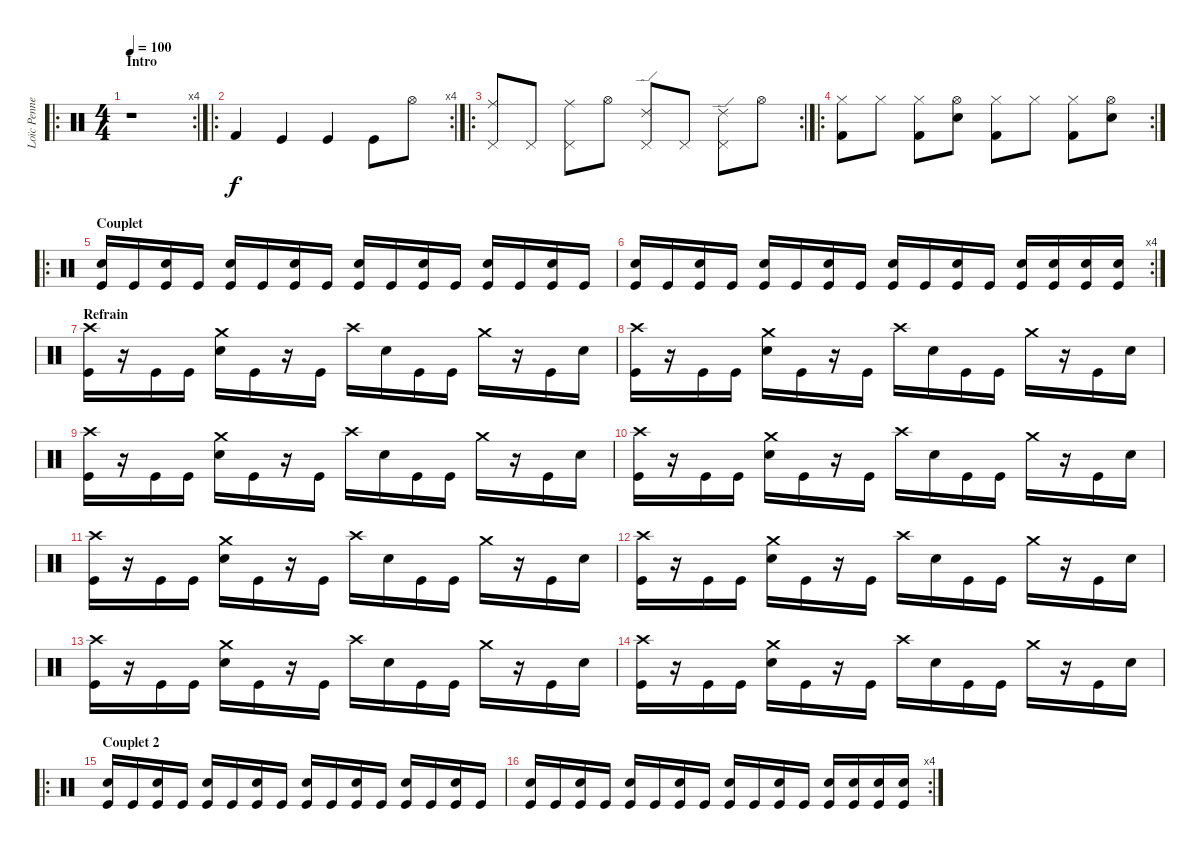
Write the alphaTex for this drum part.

\track ("Loïc Pennequin ( Batterie ) " "Loïc Penne") {instrument percussion}
\staff {score}
\articulation defaults
\ro
\rc 4
\ts (4 4)
\section ("" "Intro")
\tempo 100
\clef neutral
\ks c
r.1{dy f} |
\ro
\rc 4 "Kick (hit) 2".4 "Kick (hit)".4 "Kick (hit)".4 "Kick (hit)".8 "Hi-Hat (open)".8
|
\ro
\rc 2
("Ride (middle)" "Pedal Hi-Hat (hit)").8 "Pedal Hi-Hat (hit)".8 ("Ride (middle)" "Pedal Hi-Hat (hit)").8 "Hi-Hat (open)".8 ("Ride (edge) 2" "Pedal Hi-Hat (hit)").8 "Pedal Hi-Hat (hit)".8 ("Ride (edge) 2" "Pedal Hi-Hat (hit)").8 "Hi-Hat (open)".8 |
\ro
\rc 2
("Hi-Hat (closed)" "Kick (hit) 2").8 "Hi-Hat (closed)".8 ("Hi-Hat (closed)" "Kick (hit) 2").8 ("Electric Snare (hit)" "Hi-Hat (open)").8 ("Hi-Hat (closed)" "Kick (hit) 2").8 "Hi-Hat (closed)".8 ("Hi-Hat (closed)" "Kick (hit) 2").8 ("Electric Snare (hit)" "Hi-Hat (open)").8 |
\ro
\section ("" "Couplet")
("Electric Snare (hit)" "Kick (hit)").16 "Kick (hit)".16 ("Electric Snare (hit)" "Kick (hit)").16 "Kick (hit)".16 ("Electric Snare (hit)" "Kick (hit)").16 "Kick (hit)".16 ("Electric Snare (hit)" "Kick (hit)").16 "Kick (hit)".16 ("Electric Snare (hit)" "Kick (hit)").16 "Kick (hit)".16 ("Electric Snare (hit)" "Kick (hit)").16 "Kick (hit)".16 ("Electric Snare (hit)" "Kick (hit)").16 "Kick (hit)".16 ("Electric Snare (hit)" "Kick (hit)").16 "Kick (hit)".16 |
\rc 4
("Electric Snare (hit)" "Kick (hit)").16 "Kick (hit)".16 ("Electric Snare (hit)" "Kick (hit)").16 "Kick (hit)".16 ("Electric Snare (hit)" "Kick (hit)").16 "Kick (hit)".16 ("Electric Snare (hit)" "Kick (hit)").16 "Kick (hit)".16 ("Electric Snare (hit)" "Kick (hit)").16 "Kick (hit)".16 ("Electric Snare (hit)" "Kick (hit)").16 "Kick (hit)".16 ("Electric Snare (hit)" "Kick (hit)").16 ("Snare (hit) 2" "Kick (hit)").16 ("Electric Snare (hit)" "Kick (hit)").16 ("Snare (hit) 2" "Kick (hit)").16 |
\section ("" "Refrain")
("Crash high (hit)" "Kick (hit)").16 r.16 "Kick (hit)".16 "Kick (hit)".16 ("Crash medium (hit)" "Electric Snare (hit)").16 "Kick (hit)".16 r.16 "Kick (hit)".16 "Crash high (hit)".16 "Electric Snare (hit)".16 "Kick (hit)".16 "Kick (hit)".16 "Crash medium (hit)".16 r.16 "Kick (hit)".16 "Electric Snare (hit)".16 |
("Crash high (hit)" "Kick (hit)").16 r.16 "Kick (hit)".16 "Kick (hit)".16 ("Crash medium (hit)" "Electric Snare (hit)").16 "Kick (hit)".16 r.16 "Kick (hit)".16 "Crash high (hit)".16 "Electric Snare (hit)".16 "Kick (hit)".16 "Kick (hit)".16 "Crash medium (hit)".16 r.16 "Kick (hit)".16 "Electric Snare (hit)".16 |
("Crash high (hit)" "Kick (hit)").16 r.16 "Kick (hit)".16 "Kick (hit)".16 ("Crash medium (hit)" "Electric Snare (hit)").16 "Kick (hit)".16 r.16 "Kick (hit)".16 "Crash high (hit)".16 "Electric Snare (hit)".16 "Kick (hit)".16 "Kick (hit)".16 "Crash medium (hit)".16 r.16 "Kick (hit)".16 "Electric Snare (hit)".16 |
("Crash high (hit)" "Kick (hit)").16 r.16 "Kick (hit)".16 "Kick (hit)".16 ("Crash medium (hit)" "Electric Snare (hit)").16 "Kick (hit)".16 r.16 "Kick (hit)".16 "Crash high (hit)".16 "Electric Snare (hit)".16 "Kick (hit)".16 "Kick (hit)".16 "Crash medium (hit)".16 r.16 "Kick (hit)".16 "Electric Snare (hit)".16 |
("Crash high (hit)" "Kick (hit)").16 r.16 "Kick (hit)".16 "Kick (hit)".16 ("Crash medium (hit)" "Electric Snare (hit)").16 "Kick (hit)".16 r.16 "Kick (hit)".16 "Crash high (hit)".16 "Electric Snare (hit)".16 "Kick (hit)".16 "Kick (hit)".16 "Crash medium (hit)".16 r.16 "Kick (hit)".16 "Electric Snare (hit)".16 |
("Crash high (hit)" "Kick (hit)").16 r.16 "Kick (hit)".16 "Kick (hit)".16 ("Crash medium (hit)" "Electric Snare (hit)").16 "Kick (hit)".16 r.16 "Kick (hit)".16 "Crash high (hit)".16 "Electric Snare (hit)".16 "Kick (hit)".16 "Kick (hit)".16 "Crash medium (hit)".16 r.16 "Kick (hit)".16 "Electric Snare (hit)".16 |
("Crash high (hit)" "Kick (hit)").16 r.16 "Kick (hit)".16 "Kick (hit)".16 ("Crash medium (hit)" "Electric Snare (hit)").16 "Kick (hit)".16 r.16 "Kick (hit)".16 "Crash high (hit)".16 "Electric Snare (hit)".16 "Kick (hit)".16 "Kick (hit)".16 "Crash medium (hit)".16 r.16 "Kick (hit)".16 "Electric Snare (hit)".16 |
("Crash high (hit)" "Kick (hit)").16 r.16 "Kick (hit)".16 "Kick (hit)".16 ("Crash medium (hit)" "Electric Snare (hit)").16 "Kick (hit)".16 r.16 "Kick (hit)".16 "Crash high (hit)".16 "Electric Snare (hit)".16 "Kick (hit)".16 "Kick (hit)".16 "Crash medium (hit)".16 r.16 "Kick (hit)".16 "Electric Snare (hit)".16 |
\ro
\section ("" "Couplet 2")
("Electric Snare (hit)" "Kick (hit)").16 "Kick (hit)".16 ("Electric Snare (hit)" "Kick (hit)").16 "Kick (hit)".16 ("Electric Snare (hit)" "Kick (hit)").16 "Kick (hit)".16 ("Electric Snare (hit)" "Kick (hit)").16 "Kick (hit)".16 ("Electric Snare (hit)" "Kick (hit)").16 "Kick (hit)".16 ("Electric Snare (hit)" "Kick (hit)").16 "Kick (hit)".16 ("Electric Snare (hit)" "Kick (hit)").16 "Kick (hit)".16 ("Electric Snare (hit)" "Kick (hit)").16 "Kick (hit)".16 |
\rc 4
("Electric Snare (hit)" "Kick (hit)").16 "Kick (hit)".16 ("Electric Snare (hit)" "Kick (hit)").16 "Kick (hit)".16 ("Electric Snare (hit)" "Kick (hit)").16 "Kick (hit)".16 ("Electric Snare (hit)" "Kick (hit)").16 "Kick (hit)".16 ("Electric Snare (hit)" "Kick (hit)").16 "Kick (hit)".16 ("Electric Snare (hit)" "Kick (hit)").16 "Kick (hit)".16 ("Electric Snare (hit)" "Kick (hit)").16 ("Snare (hit) 2" "Kick (hit)").16 ("Electric Snare (hit)" "Kick (hit)").16 ("Snare (hit) 2" "Kick (hit)").16
